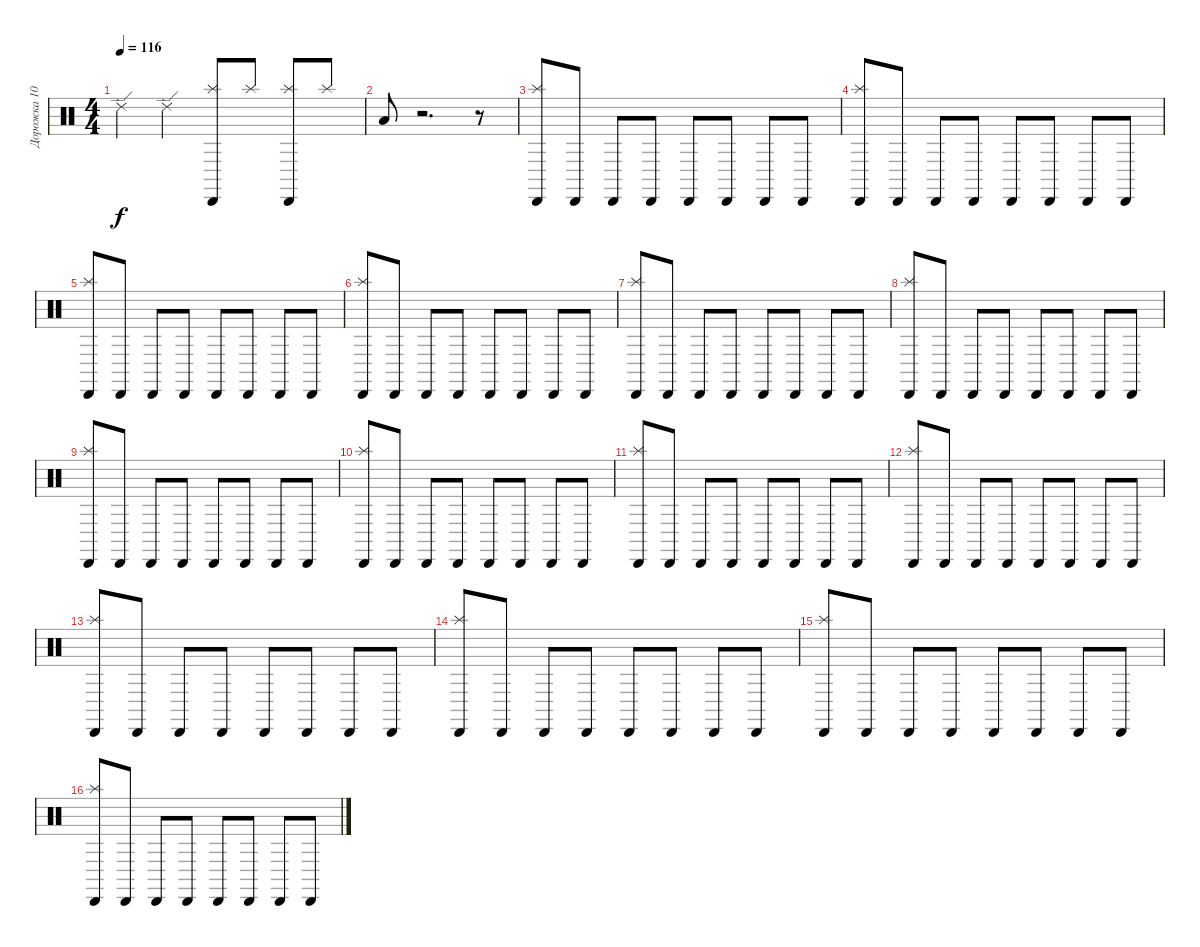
\track ("Дорожка 10" "Дорожка 10") {instrument percussion}
\staff {score}
\articulation defaults
\ts (4 4)
\tempo 116
\clef neutral
\ks c "Ride (edge) 2".4{dy f} "Ride (edge) 2".4
("Splash (hit)" "Cabasa (hit)").8 "Splash (hit)".8 ("Splash (hit)" "Cabasa (hit)").8 "Splash (hit)".8 |
"Low Tom (hit)".8 r.2{d} r.8 |
("Splash (hit)" "Cabasa (hit)").8 "Cabasa (hit)".8 "Cabasa (hit)".8 "Cabasa (hit)".8 "Cabasa (hit)".8 "Cabasa (hit)".8 "Cabasa (hit)".8 "Cabasa (hit)".8 |
("Splash (hit)" "Cabasa (hit)").8 "Cabasa (hit)".8 "Cabasa (hit)".8 "Cabasa (hit)".8 "Cabasa (hit)".8 "Cabasa (hit)".8 "Cabasa (hit)".8 "Cabasa (hit)".8 |
("Splash (hit)" "Cabasa (hit)").8 "Cabasa (hit)".8 "Cabasa (hit)".8 "Cabasa (hit)".8 "Cabasa (hit)".8 "Cabasa (hit)".8 "Cabasa (hit)".8 "Cabasa (hit)".8 |
("Splash (hit)" "Cabasa (hit)").8 "Cabasa (hit)".8 "Cabasa (hit)".8 "Cabasa (hit)".8 "Cabasa (hit)".8 "Cabasa (hit)".8 "Cabasa (hit)".8 "Cabasa (hit)".8 |
("Splash (hit)" "Cabasa (hit)").8 "Cabasa (hit)".8 "Cabasa (hit)".8 "Cabasa (hit)".8 "Cabasa (hit)".8 "Cabasa (hit)".8 "Cabasa (hit)".8 "Cabasa (hit)".8 |
("Splash (hit)" "Cabasa (hit)").8 "Cabasa (hit)".8 "Cabasa (hit)".8 "Cabasa (hit)".8 "Cabasa (hit)".8 "Cabasa (hit)".8 "Cabasa (hit)".8 "Cabasa (hit)".8 |
("Splash (hit)" "Cabasa (hit)").8 "Cabasa (hit)".8 "Cabasa (hit)".8 "Cabasa (hit)".8 "Cabasa (hit)".8 "Cabasa (hit)".8 "Cabasa (hit)".8 "Cabasa (hit)".8 |
("Splash (hit)" "Cabasa (hit)").8 "Cabasa (hit)".8 "Cabasa (hit)".8 "Cabasa (hit)".8 "Cabasa (hit)".8 "Cabasa (hit)".8 "Cabasa (hit)".8 "Cabasa (hit)".8 |
("Splash (hit)" "Cabasa (hit)").8 "Cabasa (hit)".8 "Cabasa (hit)".8 "Cabasa (hit)".8 "Cabasa (hit)".8 "Cabasa (hit)".8 "Cabasa (hit)".8 "Cabasa (hit)".8 |
("Splash (hit)" "Cabasa (hit)").8 "Cabasa (hit)".8 "Cabasa (hit)".8 "Cabasa (hit)".8 "Cabasa (hit)".8 "Cabasa (hit)".8 "Cabasa (hit)".8 "Cabasa (hit)".8 |
("Splash (hit)" "Cabasa (hit)").8 "Cabasa (hit)".8 "Cabasa (hit)".8 "Cabasa (hit)".8 "Cabasa (hit)".8 "Cabasa (hit)".8 "Cabasa (hit)".8 "Cabasa (hit)".8 |
("Splash (hit)" "Cabasa (hit)").8 "Cabasa (hit)".8 "Cabasa (hit)".8 "Cabasa (hit)".8 "Cabasa (hit)".8 "Cabasa (hit)".8 "Cabasa (hit)".8 "Cabasa (hit)".8 |
("Splash (hit)" "Cabasa (hit)").8 "Cabasa (hit)".8 "Cabasa (hit)".8 "Cabasa (hit)".8 "Cabasa (hit)".8 "Cabasa (hit)".8 "Cabasa (hit)".8 "Cabasa (hit)".8 |
("Splash (hit)" "Cabasa (hit)").8 "Cabasa (hit)".8 "Cabasa (hit)".8 "Cabasa (hit)".8 "Cabasa (hit)".8 "Cabasa (hit)".8 "Cabasa (hit)".8 "Cabasa (hit)".8
